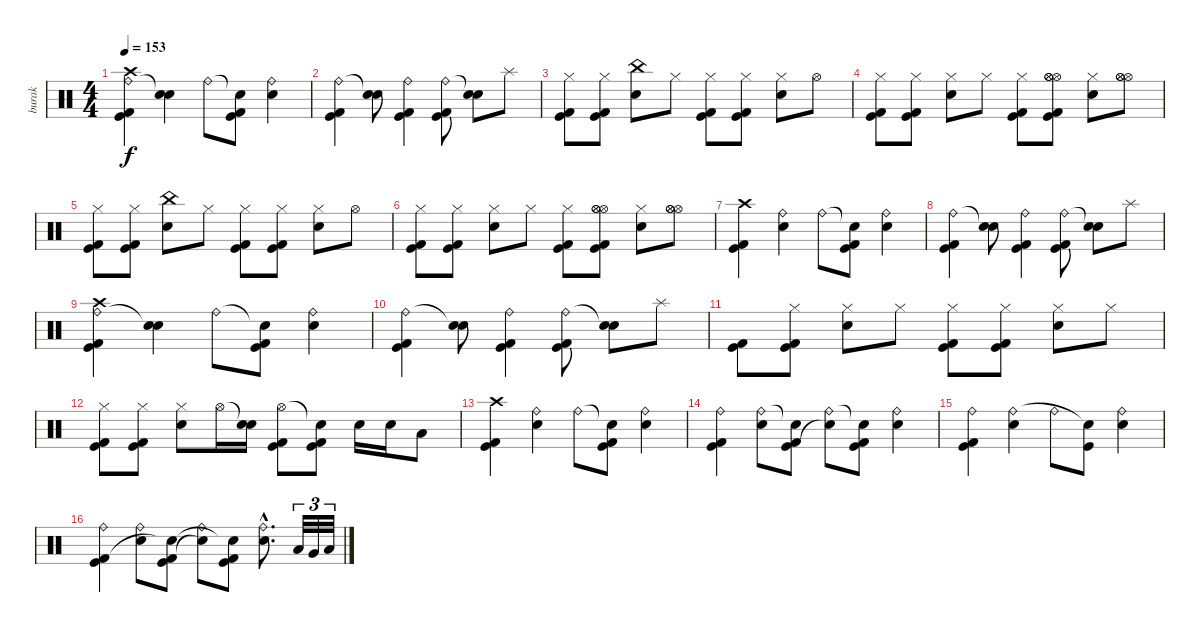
\track ("burak" "burak") {instrument percussion}
\staff {score}
\articulation defaults
\ts (4 4)
\tempo 153
\clef neutral
\ks c
("Ride (bell)" "Crash high (hit)" "Kick (hit)" "Kick (hit) 2").4{dy f} ("Snare (hit)"{t} "Electric Snare (hit)").4 "Ride (bell)".8 ("Snare (hit)"{t} "Kick (hit)" "Kick (hit) 2").8 ("Ride (bell)" "Electric Snare (hit)").4 |
("Ride (bell)" "Kick (hit)" "Kick (hit) 2").4 ("Snare (hit)"{t} "Electric Snare (hit)").8 ("Ride (bell)" "Kick (hit)" "Kick (hit) 2").4 ("Ride (bell)" "Kick (hit)" "Kick (hit) 2").8 ("Snare (hit)"{t} "Electric Snare (hit)").8 "Splash (hit)".8 |
("Hi-Hat (closed)" "Kick (hit)" "Kick (hit) 2").8 ("Hi-Hat (closed)" "Kick (hit)" "Kick (hit) 2").8 ("Electric Snare (hit)" "China (hit)").8 "Hi-Hat (closed)".8 ("Hi-Hat (closed)" "Kick (hit) 2" "Kick (hit)").8 ("Hi-Hat (closed)" "Kick (hit)" "Kick (hit) 2").8 ("Hi-Hat (closed)" "Electric Snare (hit)").8 "Hi-Hat (open)".8 |
("Hi-Hat (closed)" "Kick (hit)" "Kick (hit) 2").8 ("Hi-Hat (closed)" "Kick (hit)" "Kick (hit) 2").8 ("Hi-Hat (closed)" "Electric Snare (hit)").8 "Hi-Hat (closed)".8 ("Hi-Hat (closed)" "Kick (hit)" "Kick (hit) 2").8 ("Kick (hit)" "Kick (hit) 2" "Hi-Hat (open)" "Hi-Hat (open)" "Hi-Hat (open)").8 ("Hi-Hat (closed)" "Electric Snare (hit)").8 ("Hi-Hat (open)" "Hi-Hat (open)" "Hi-Hat (open)").8 |
("Hi-Hat (closed)" "Kick (hit)" "Kick (hit) 2").8 ("Hi-Hat (closed)" "Kick (hit)" "Kick (hit) 2").8 ("Electric Snare (hit)" "China (hit)").8 "Hi-Hat (closed)".8 ("Hi-Hat (closed)" "Kick (hit) 2" "Kick (hit)").8 ("Hi-Hat (closed)" "Kick (hit)" "Kick (hit) 2").8 ("Hi-Hat (closed)" "Electric Snare (hit)").8 "Hi-Hat (open)".8 |
("Hi-Hat (closed)" "Kick (hit)" "Kick (hit) 2").8 ("Hi-Hat (closed)" "Kick (hit)" "Kick (hit) 2").8 ("Hi-Hat (closed)" "Electric Snare (hit)").8 "Hi-Hat (closed)".8 ("Hi-Hat (closed)" "Kick (hit)" "Kick (hit) 2").8 ("Kick (hit)" "Kick (hit) 2" "Hi-Hat (open)" "Hi-Hat (open)" "Hi-Hat (open)").8 ("Hi-Hat (closed)" "Electric Snare (hit)").8 ("Hi-Hat (open)" "Hi-Hat (open)" "Hi-Hat (open)").8 |
("Crash high (hit)" "Kick (hit)" "Kick (hit) 2").4 ("Ride (bell)" "Electric Snare (hit)").4 "Ride (bell)".8 ("Snare (hit)"{t} "Kick (hit)" "Kick (hit) 2").8 ("Ride (bell)" "Electric Snare (hit)").4 |
("Ride (bell)" "Kick (hit)" "Kick (hit) 2").4 ("Snare (hit)"{t} "Electric Snare (hit)").8 ("Ride (bell)" "Kick (hit)" "Kick (hit) 2").4 ("Ride (bell)" "Kick (hit)" "Kick (hit) 2").8 ("Snare (hit)"{t} "Electric Snare (hit)").8 "Splash (hit)".8 |
("Ride (bell)" "Crash high (hit)" "Kick (hit)" "Kick (hit) 2").4 ("Snare (hit)"{t} "Electric Snare (hit)").4 "Ride (bell)".8 ("Snare (hit)"{t} "Kick (hit)" "Kick (hit) 2").8 ("Ride (bell)" "Electric Snare (hit)").4 |
("Ride (bell)" "Kick (hit)" "Kick (hit) 2").4 ("Snare (hit)"{t} "Electric Snare (hit)").8 ("Ride (bell)" "Kick (hit)" "Kick (hit) 2").4 ("Ride (bell)" "Kick (hit)" "Kick (hit) 2").8 ("Snare (hit)"{t} "Electric Snare (hit)").8 "Splash (hit)".8 |
("Kick (hit)" "Kick (hit) 2").8 ("Hi-Hat (closed)" "Kick (hit)" "Kick (hit) 2").8 ("Hi-Hat (closed)" "Electric Snare (hit)").8 "Hi-Hat (closed)".8 ("Hi-Hat (closed)" "Kick (hit)" "Kick (hit) 2").8 ("Hi-Hat (closed)" "Kick (hit)" "Kick (hit) 2").8 ("Hi-Hat (closed)" "Electric Snare (hit)").8 "Hi-Hat (closed)".8 |
("Hi-Hat (closed)" "Kick (hit)" "Kick (hit) 2").8 ("Hi-Hat (closed)" "Kick (hit)" "Kick (hit) 2").8 ("Hi-Hat (closed)" "Electric Snare (hit)").8 "Hi-Hat (open)".16 ("Snare (hit)"{t} "Electric Snare (hit)").16 ("Kick (hit)" "Hi-Hat (open)" "Kick (hit) 2").8 ("Kick (hit)" "Snare (hit)"{t} "Kick (hit) 2").8 "Electric Snare (hit)".16 "Electric Snare (hit)".16 "Low Tom (hit)".8 |
("Kick (hit)" "Kick (hit) 2" "Crash high (hit)").4 ("Electric Snare (hit)" "Ride (bell)").4 "Ride (bell)".8 ("Snare (hit)"{t} "Kick (hit) 2" "Kick (hit)").8 ("Electric Snare (hit)" "Ride (bell)").4 |
("Kick (hit) 2" "Kick (hit)" "Ride (bell)").4 ("Electric Snare (hit)" "Ride (bell)").8 ("Kick (hit)" "Snare (hit)"{t} "Kick (hit) 2").8 ("Snare (hit)"{t} "Ride (bell)").8 ("Kick (hit)" "Snare (hit)"{t} "Kick (hit) 2").8 ("Electric Snare (hit)" "Ride (bell)").4 |
("Kick (hit)" "Ride (bell)" "Kick (hit) 2").4 ("Electric Snare (hit)" "Ride (bell)").4 "Ride (bell)".8 ("Kick (hit)" "Snare (hit)"{t}).8 ("Electric Snare (hit)" "Ride (bell)").4 |
("Kick (hit)" "Ride (bell)" "Kick (hit) 2").4 ("Electric Snare (hit)" "Ride (bell)").8 ("Kick (hit) 2" "Kick (hit)" "Snare (hit)"{t}).8 ("Snare (hit)"{t} "Ride (bell)").8 ("Kick (hit)" "Kick (hit) 2" "Snare (hit)"{t}).8 ("Electric Snare (hit)"{hac} "Ride (bell)"{hac}).8{d} "Low Tom (hit)".32{tu (3 2)} "Very Low Tom (hit)".32{tu (3 2)} "Low Floor Tom (hit)".32{tu (3 2)}
